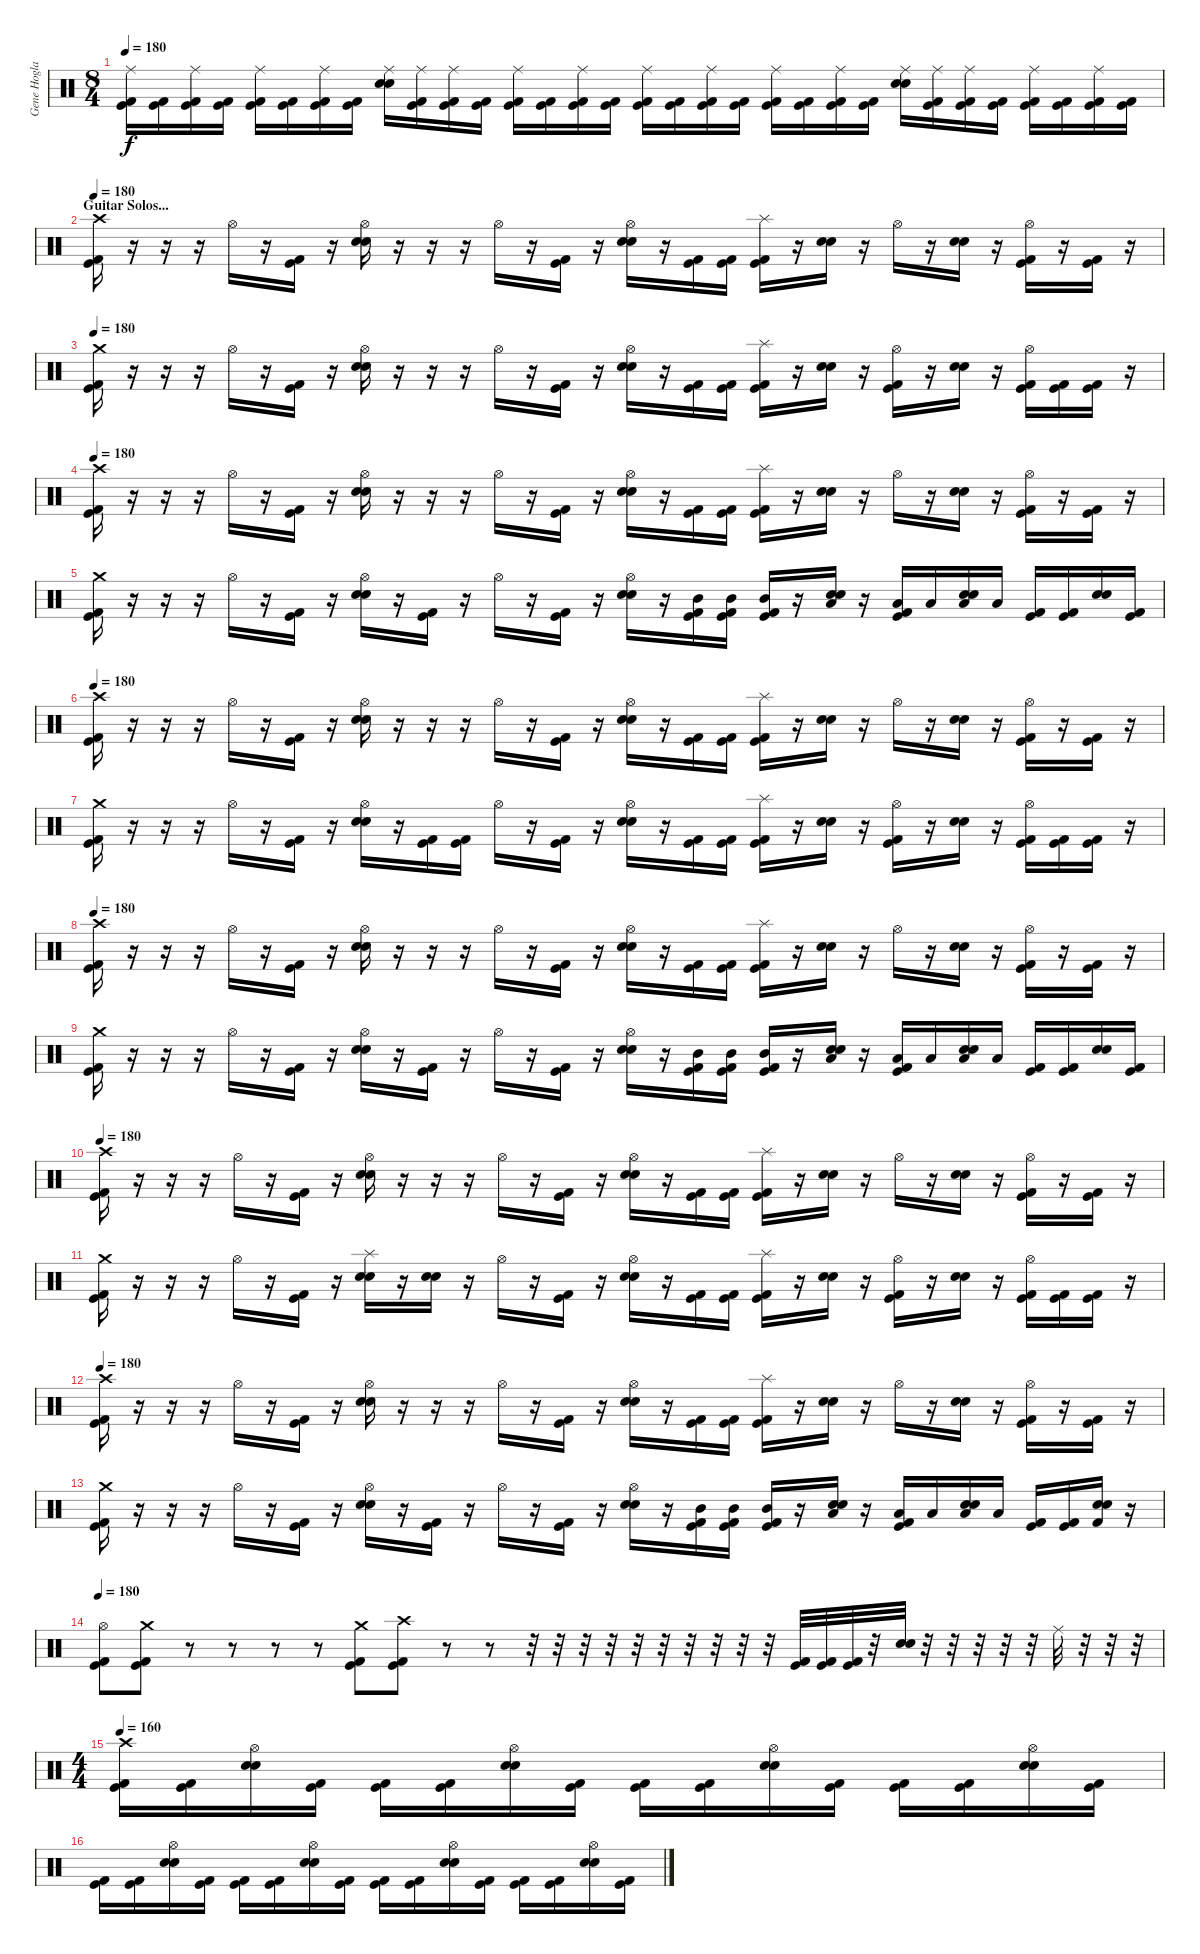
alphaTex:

\track ("Gene Hoglan" "Gene Hogla") {instrument percussion}
\staff {score}
\articulation defaults
\ts (8 4)
\tempo 180
\clef neutral
\ks c
("Ride (middle)" "Kick (hit)" "Kick (hit) 2").16{dy f} ("Kick (hit)" "Kick (hit) 2").16 ("Ride (middle)" "Kick (hit)" "Kick (hit) 2").16 ("Kick (hit)" "Kick (hit) 2").16 ("Ride (middle)" "Kick (hit)" "Kick (hit) 2").16 ("Kick (hit)" "Kick (hit) 2").16 ("Ride (middle)" "Kick (hit)" "Kick (hit) 2").16 ("Kick (hit)" "Kick (hit) 2").16 ("Ride (middle)" "Snare (hit) 2" "Electric Snare (hit)").16 ("Ride (middle)" "Kick (hit)" "Kick (hit) 2").16 ("Ride (middle)" "Kick (hit)" "Kick (hit) 2").16 ("Kick (hit)" "Kick (hit) 2").16 ("Ride (middle)" "Kick (hit)" "Kick (hit) 2").16 ("Kick (hit)" "Kick (hit) 2").16 ("Ride (middle)" "Kick (hit)" "Kick (hit) 2").16 ("Kick (hit)" "Kick (hit) 2").16 ("Ride (middle)" "Kick (hit)" "Kick (hit) 2").16 ("Kick (hit)" "Kick (hit) 2").16 ("Ride (middle)" "Kick (hit)" "Kick (hit) 2").16 ("Kick (hit)" "Kick (hit) 2").16 ("Ride (middle)" "Kick (hit)" "Kick (hit) 2").16 ("Kick (hit)" "Kick (hit) 2").16 ("Ride (middle)" "Kick (hit)" "Kick (hit) 2").16 ("Kick (hit)" "Kick (hit) 2").16 ("Ride (middle)" "Snare (hit) 2" "Electric Snare (hit)").16 ("Ride (middle)" "Kick (hit)" "Kick (hit) 2").16 ("Ride (middle)" "Kick (hit)" "Kick (hit) 2").16 ("Kick (hit)" "Kick (hit) 2").16 ("Ride (middle)" "Kick (hit)" "Kick (hit) 2").16 ("Kick (hit)" "Kick (hit) 2").16 ("Ride (middle)" "Kick (hit)" "Kick (hit) 2").16 ("Kick (hit)" "Kick (hit) 2").16 |
\section ("" "Guitar Solos...")
\tempo 180
("Crash high (hit)" "Kick (hit)" "Kick (hit) 2").16 r.16 r.16 r.16 "Hi-Hat (open)".16 r.16 ("Kick (hit)" "Kick (hit) 2").16 r.16 ("Hi-Hat (open)" "Snare (hit) 2" "Electric Snare (hit)").16 r.16 r.16 r.16 "Hi-Hat (open)".16 r.16 ("Kick (hit)" "Kick (hit) 2").16 r.16 ("Hi-Hat (open)" "Snare (hit) 2" "Electric Snare (hit)").16 r.16 ("Kick (hit) 2" "Kick (hit)").16 ("Kick (hit) 2" "Kick (hit)").16 ("Splash (hit)" "Kick (hit) 2" "Kick (hit)").16 r.16 ("Snare (hit) 2" "Electric Snare (hit)").16 r.16 "Hi-Hat (open)".16 r.16 ("Snare (hit) 2" "Electric Snare (hit)").16 r.16 ("Hi-Hat (open)" "Kick (hit)" "Kick (hit) 2").16 r.16 ("Kick (hit)" "Kick (hit) 2").16 r.16 |
\tempo 180
("Crash medium (hit)" "Kick (hit)" "Kick (hit) 2").16 r.16 r.16 r.16 "Hi-Hat (open)".16 r.16 ("Kick (hit)" "Kick (hit) 2").16 r.16 ("Hi-Hat (open)" "Snare (hit) 2" "Electric Snare (hit)").16 r.16 r.16 r.16 "Hi-Hat (open)".16 r.16 ("Kick (hit)" "Kick (hit) 2").16 r.16 ("Hi-Hat (open)" "Snare (hit) 2" "Electric Snare (hit)").16 r.16 ("Kick (hit) 2" "Kick (hit)").16 ("Kick (hit) 2" "Kick (hit)").16 ("Splash (hit)" "Kick (hit) 2" "Kick (hit)").16 r.16 ("Snare (hit) 2" "Electric Snare (hit)").16 r.16 ("Hi-Hat (open)" "Kick (hit) 2" "Kick (hit)").16 r.16 ("Snare (hit) 2" "Electric Snare (hit)").16 r.16 ("Hi-Hat (open)" "Kick (hit)" "Kick (hit) 2").16 ("Kick (hit) 2" "Kick (hit)").16 ("Kick (hit)" "Kick (hit) 2").16 r.16 |
\tempo 180
("Crash high (hit)" "Kick (hit)" "Kick (hit) 2").16 r.16 r.16 r.16 "Hi-Hat (open)".16 r.16 ("Kick (hit)" "Kick (hit) 2").16 r.16 ("Hi-Hat (open)" "Snare (hit) 2" "Electric Snare (hit)").16 r.16 r.16 r.16 "Hi-Hat (open)".16 r.16 ("Kick (hit)" "Kick (hit) 2").16 r.16 ("Hi-Hat (open)" "Snare (hit) 2" "Electric Snare (hit)").16 r.16 ("Kick (hit) 2" "Kick (hit)").16 ("Kick (hit) 2" "Kick (hit)").16 ("Splash (hit)" "Kick (hit) 2" "Kick (hit)").16 r.16 ("Snare (hit) 2" "Electric Snare (hit)").16 r.16 "Hi-Hat (open)".16 r.16 ("Snare (hit) 2" "Electric Snare (hit)").16 r.16 ("Hi-Hat (open)" "Kick (hit)" "Kick (hit) 2").16 r.16 ("Kick (hit)" "Kick (hit) 2").16 r.16 |
("Crash medium (hit)" "Kick (hit)" "Kick (hit) 2").16 r.16 r.16 r.16 "Hi-Hat (open)".16 r.16 ("Kick (hit)" "Kick (hit) 2").16 r.16 ("Hi-Hat (open)" "Snare (hit) 2" "Electric Snare (hit)").16 r.16 ("Kick (hit) 2" "Kick (hit)").16 r.16 "Hi-Hat (open)".16 r.16 ("Kick (hit)" "Kick (hit) 2").16 r.16 ("Hi-Hat (open)" "Snare (hit) 2" "Electric Snare (hit)").16 r.16 ("Mid Tom (hit)" "Kick (hit) 2" "Kick (hit)").16 ("Mid Tom (hit)" "Kick (hit) 2" "Kick (hit)").16 ("Mid Tom (hit)" "Kick (hit) 2" "Kick (hit)").16 r.16 ("Low Tom (hit)" "Snare (hit) 2" "Electric Snare (hit)").16 r.16 ("Low Tom (hit)" "Kick (hit) 2" "Kick (hit)").16 "Low Tom (hit)".16 ("Low Tom (hit)" "Snare (hit) 2" "Electric Snare (hit)").16 "Low Tom (hit)".16 ("Kick (hit)" "Kick (hit) 2").16 ("Kick (hit) 2" "Kick (hit)").16 ("Snare (hit) 2" "Electric Snare (hit)").16 ("Kick (hit) 2" "Kick (hit)").16 |
\tempo 180
("Crash high (hit)" "Kick (hit)" "Kick (hit) 2").16 r.16 r.16 r.16 "Hi-Hat (open)".16 r.16 ("Kick (hit)" "Kick (hit) 2").16 r.16 ("Hi-Hat (open)" "Snare (hit) 2" "Electric Snare (hit)").16 r.16 r.16 r.16 "Hi-Hat (open)".16 r.16 ("Kick (hit)" "Kick (hit) 2").16 r.16 ("Hi-Hat (open)" "Snare (hit) 2" "Electric Snare (hit)").16 r.16 ("Kick (hit) 2" "Kick (hit)").16 ("Kick (hit) 2" "Kick (hit)").16 ("Splash (hit)" "Kick (hit) 2" "Kick (hit)").16 r.16 ("Snare (hit) 2" "Electric Snare (hit)").16 r.16 "Hi-Hat (open)".16 r.16 ("Snare (hit) 2" "Electric Snare (hit)").16 r.16 ("Hi-Hat (open)" "Kick (hit)" "Kick (hit) 2").16 r.16 ("Kick (hit)" "Kick (hit) 2").16 r.16 |
("Crash medium (hit)" "Kick (hit)" "Kick (hit) 2").16 r.16 r.16 r.16 "Hi-Hat (open)".16 r.16 ("Kick (hit)" "Kick (hit) 2").16 r.16 ("Hi-Hat (open)" "Snare (hit) 2" "Electric Snare (hit)").16 r.16 ("Kick (hit) 2" "Kick (hit)").16 ("Kick (hit) 2" "Kick (hit)").16 "Hi-Hat (open)".16 r.16 ("Kick (hit)" "Kick (hit) 2").16 r.16 ("Hi-Hat (open)" "Snare (hit) 2" "Electric Snare (hit)").16 r.16 ("Kick (hit) 2" "Kick (hit)").16 ("Kick (hit) 2" "Kick (hit)").16 ("Splash (hit)" "Kick (hit) 2" "Kick (hit)").16 r.16 ("Snare (hit) 2" "Electric Snare (hit)").16 r.16 ("Hi-Hat (open)" "Kick (hit) 2" "Kick (hit)").16 r.16 ("Snare (hit) 2" "Electric Snare (hit)").16 r.16 ("Hi-Hat (open)" "Kick (hit)" "Kick (hit) 2").16 ("Kick (hit) 2" "Kick (hit)").16 ("Kick (hit)" "Kick (hit) 2").16 r.16 |
\tempo 180
("Crash high (hit)" "Kick (hit)" "Kick (hit) 2").16 r.16 r.16 r.16 "Hi-Hat (open)".16 r.16 ("Kick (hit)" "Kick (hit) 2").16 r.16 ("Hi-Hat (open)" "Snare (hit) 2" "Electric Snare (hit)").16 r.16 r.16 r.16 "Hi-Hat (open)".16 r.16 ("Kick (hit)" "Kick (hit) 2").16 r.16 ("Hi-Hat (open)" "Snare (hit) 2" "Electric Snare (hit)").16 r.16 ("Kick (hit) 2" "Kick (hit)").16 ("Kick (hit) 2" "Kick (hit)").16 ("Splash (hit)" "Kick (hit) 2" "Kick (hit)").16 r.16 ("Snare (hit) 2" "Electric Snare (hit)").16 r.16 "Hi-Hat (open)".16 r.16 ("Snare (hit) 2" "Electric Snare (hit)").16 r.16 ("Hi-Hat (open)" "Kick (hit)" "Kick (hit) 2").16 r.16 ("Kick (hit)" "Kick (hit) 2").16 r.16 |
("Crash medium (hit)" "Kick (hit)" "Kick (hit) 2").16 r.16 r.16 r.16 "Hi-Hat (open)".16 r.16 ("Kick (hit)" "Kick (hit) 2").16 r.16 ("Hi-Hat (open)" "Snare (hit) 2" "Electric Snare (hit)").16 r.16 ("Kick (hit) 2" "Kick (hit)").16 r.16 "Hi-Hat (open)".16 r.16 ("Kick (hit)" "Kick (hit) 2").16 r.16 ("Hi-Hat (open)" "Snare (hit) 2" "Electric Snare (hit)").16 r.16 ("Mid Tom (hit)" "Kick (hit) 2" "Kick (hit)").16 ("Mid Tom (hit)" "Kick (hit) 2" "Kick (hit)").16 ("Mid Tom (hit)" "Kick (hit) 2" "Kick (hit)").16 r.16 ("Low Tom (hit)" "Snare (hit) 2" "Electric Snare (hit)").16 r.16 ("Low Tom (hit)" "Kick (hit) 2" "Kick (hit)").16 "Low Tom (hit)".16 ("Low Tom (hit)" "Snare (hit) 2" "Electric Snare (hit)").16 "Low Tom (hit)".16 ("Kick (hit)" "Kick (hit) 2").16 ("Kick (hit) 2" "Kick (hit)").16 ("Snare (hit) 2" "Electric Snare (hit)").16 ("Kick (hit) 2" "Kick (hit)").16 |
\tempo 180
("Crash high (hit)" "Kick (hit)" "Kick (hit) 2").16 r.16 r.16 r.16 "Hi-Hat (open)".16 r.16 ("Kick (hit)" "Kick (hit) 2").16 r.16 ("Hi-Hat (open)" "Snare (hit) 2" "Electric Snare (hit)").16 r.16 r.16 r.16 "Hi-Hat (open)".16 r.16 ("Kick (hit)" "Kick (hit) 2").16 r.16 ("Hi-Hat (open)" "Snare (hit) 2" "Electric Snare (hit)").16 r.16 ("Kick (hit) 2" "Kick (hit)").16 ("Kick (hit) 2" "Kick (hit)").16 ("Splash (hit)" "Kick (hit) 2" "Kick (hit)").16 r.16 ("Snare (hit) 2" "Electric Snare (hit)").16 r.16 "Hi-Hat (open)".16 r.16 ("Snare (hit) 2" "Electric Snare (hit)").16 r.16 ("Hi-Hat (open)" "Kick (hit)" "Kick (hit) 2").16 r.16 ("Kick (hit)" "Kick (hit) 2").16 r.16 |
("Crash medium (hit)" "Kick (hit)" "Kick (hit) 2").16 r.16 r.16 r.16 "Hi-Hat (open)".16 r.16 ("Kick (hit)" "Kick (hit) 2").16 r.16 ("Splash (hit)" "Snare (hit) 2" "Electric Snare (hit)").16 r.16 ("Snare (hit) 2" "Electric Snare (hit)").16 r.16 "Hi-Hat (open)".16 r.16 ("Kick (hit)" "Kick (hit) 2").16 r.16 ("Hi-Hat (open)" "Snare (hit) 2" "Electric Snare (hit)").16 r.16 ("Kick (hit) 2" "Kick (hit)").16 ("Kick (hit) 2" "Kick (hit)").16 ("Splash (hit)" "Kick (hit) 2" "Kick (hit)").16 r.16 ("Snare (hit) 2" "Electric Snare (hit)").16 r.16 ("Hi-Hat (open)" "Kick (hit) 2" "Kick (hit)").16 r.16 ("Snare (hit) 2" "Electric Snare (hit)").16 r.16 ("Hi-Hat (open)" "Kick (hit)" "Kick (hit) 2").16 ("Kick (hit) 2" "Kick (hit)").16 ("Kick (hit)" "Kick (hit) 2").16 r.16 |
\tempo 180
("Crash high (hit)" "Kick (hit)" "Kick (hit) 2").16 r.16 r.16 r.16 "Hi-Hat (open)".16 r.16 ("Kick (hit)" "Kick (hit) 2").16 r.16 ("Hi-Hat (open)" "Snare (hit) 2" "Electric Snare (hit)").16 r.16 r.16 r.16 "Hi-Hat (open)".16 r.16 ("Kick (hit)" "Kick (hit) 2").16 r.16 ("Hi-Hat (open)" "Snare (hit) 2" "Electric Snare (hit)").16 r.16 ("Kick (hit) 2" "Kick (hit)").16 ("Kick (hit) 2" "Kick (hit)").16 ("Splash (hit)" "Kick (hit) 2" "Kick (hit)").16 r.16 ("Snare (hit) 2" "Electric Snare (hit)").16 r.16 "Hi-Hat (open)".16 r.16 ("Snare (hit) 2" "Electric Snare (hit)").16 r.16 ("Hi-Hat (open)" "Kick (hit)" "Kick (hit) 2").16 r.16 ("Kick (hit)" "Kick (hit) 2").16 r.16 |
("Crash medium (hit)" "Kick (hit)" "Kick (hit) 2").16 r.16 r.16 r.16 "Hi-Hat (open)".16 r.16 ("Kick (hit)" "Kick (hit) 2").16 r.16 ("Hi-Hat (open)" "Snare (hit) 2" "Electric Snare (hit)").16 r.16 ("Kick (hit) 2" "Kick (hit)").16 r.16 "Hi-Hat (open)".16 r.16 ("Kick (hit)" "Kick (hit) 2").16 r.16 ("Hi-Hat (open)" "Snare (hit) 2" "Electric Snare (hit)").16 r.16 ("Mid Tom (hit)" "Kick (hit) 2" "Kick (hit)").16 ("Mid Tom (hit)" "Kick (hit) 2" "Kick (hit)").16 ("Mid Tom (hit)" "Kick (hit) 2" "Kick (hit)").16 r.16 ("Low Tom (hit)" "Snare (hit) 2" "Electric Snare (hit)").16 r.16 ("Low Tom (hit)" "Kick (hit) 2" "Kick (hit)").16 "Low Tom (hit)".16 ("Low Tom (hit)" "Snare (hit) 2" "Electric Snare (hit)").16 "Low Tom (hit)".16 ("Kick (hit)" "Kick (hit) 2").16 ("Kick (hit) 2" "Kick (hit)").16 ("Snare (hit) 2" "Electric Snare (hit)" "Kick (hit) 2").16 r.16 |
\tempo 180
("Hi-Hat (open)" "Kick (hit) 2" "Kick (hit)").8 ("Crash medium (hit)" "Kick (hit) 2" "Kick (hit)").8 r.8 r.8 r.8 r.8 ("Crash medium (hit)" "Kick (hit) 2" "Kick (hit)").8 ("Crash high (hit)" "Kick (hit) 2" "Kick (hit)").8 r.8 r.8 r.32 r.32 r.32 r.32 r.32 r.32 r.32 r.32 r.32 r.32 ("Kick (hit)" "Kick (hit) 2").32 ("Kick (hit)" "Kick (hit) 2").32 ("Kick (hit)" "Kick (hit) 2").32 r.32 ("Snare (hit) 2" "Electric Snare (hit)").32 r.32 r.32 r.32 r.32 r.32 "Ride (middle)".32 r.32 r.32 r.32 |
\ts (4 4)
\tempo 160
("Crash high (hit)" "Kick (hit) 2" "Kick (hit)").16 ("Kick (hit) 2" "Kick (hit)").16 ("Hi-Hat (open)" "Snare (hit) 2" "Electric Snare (hit)").16 ("Kick (hit) 2" "Kick (hit)").16 ("Kick (hit) 2" "Kick (hit)").16 ("Kick (hit) 2" "Kick (hit)").16 ("Hi-Hat (open)" "Snare (hit) 2" "Electric Snare (hit)").16 ("Kick (hit) 2" "Kick (hit)").16 ("Kick (hit) 2" "Kick (hit)").16 ("Kick (hit) 2" "Kick (hit)").16 ("Hi-Hat (open)" "Snare (hit) 2" "Electric Snare (hit)").16 ("Kick (hit) 2" "Kick (hit)").16 ("Kick (hit) 2" "Kick (hit)").16 ("Kick (hit) 2" "Kick (hit)").16 ("Hi-Hat (open)" "Snare (hit) 2" "Electric Snare (hit)").16 ("Kick (hit) 2" "Kick (hit)").16 |
("Kick (hit) 2" "Kick (hit)").16 ("Kick (hit) 2" "Kick (hit)").16 ("Hi-Hat (open)" "Snare (hit) 2" "Electric Snare (hit)").16 ("Kick (hit) 2" "Kick (hit)").16 ("Kick (hit) 2" "Kick (hit)").16 ("Kick (hit) 2" "Kick (hit)").16 ("Hi-Hat (open)" "Snare (hit) 2" "Electric Snare (hit)").16 ("Kick (hit) 2" "Kick (hit)").16 ("Kick (hit) 2" "Kick (hit)").16 ("Kick (hit) 2" "Kick (hit)").16 ("Hi-Hat (open)" "Snare (hit) 2" "Electric Snare (hit)").16 ("Kick (hit) 2" "Kick (hit)").16 ("Kick (hit) 2" "Kick (hit)").16 ("Kick (hit) 2" "Kick (hit)").16 ("Hi-Hat (open)" "Snare (hit) 2" "Electric Snare (hit)").16 ("Kick (hit) 2" "Kick (hit)").16
